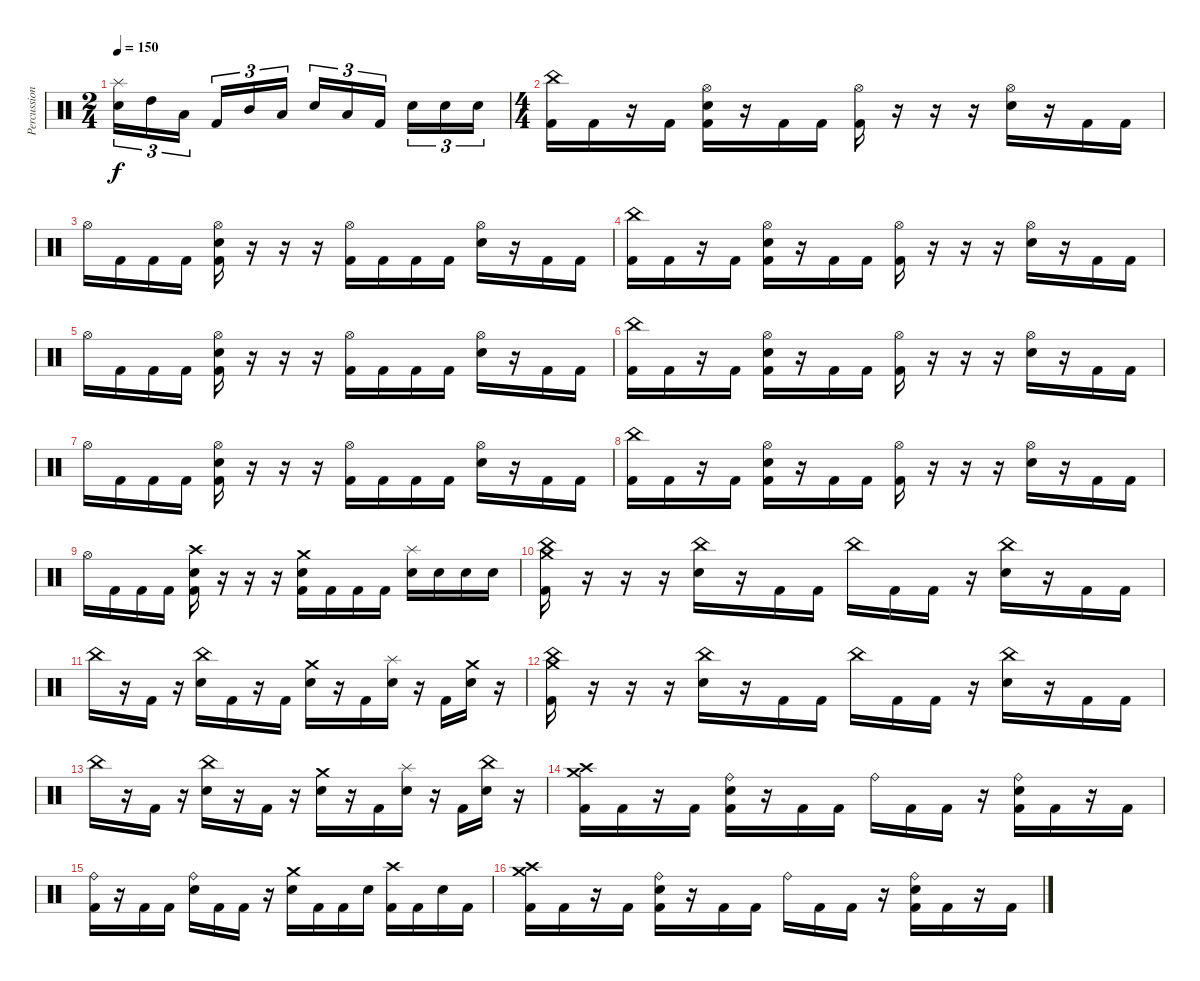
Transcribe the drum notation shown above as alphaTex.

\track ("Percussion" "Percussion") {instrument percussion}
\staff {score}
\articulation defaults
\ts (2 4)
\tempo 150
\clef neutral
\ks c
("Splash (hit)" "Electric Snare (hit)").16{tu (3 2) dy f} "High Tom (hit)".16{tu (3 2)} "Low Floor Tom (hit)".16{tu (3 2)} "Kick (hit) 2".16{tu (3 2)} "Mid Tom (hit)".16{tu (3 2)} "Low Tom (hit)".16{tu (3 2)} "Electric Snare (hit)".16{tu (3 2)} "Low Tom (hit)".16{tu (3 2)} "Kick (hit) 2".16{tu (3 2)} "Electric Snare (hit)".16{tu (3 2)} "Electric Snare (hit)".16{tu (3 2)} "Electric Snare (hit)".16{tu (3 2)} |
\ts (4 4)
("China (hit)" "Kick (hit) 2").16 "Kick (hit) 2".16 r.16 "Kick (hit) 2".16 ("Hi-Hat (open)" "Electric Snare (hit)" "Kick (hit) 2").16 r.16 "Kick (hit) 2".16 "Kick (hit) 2".16 ("Hi-Hat (open)" "Kick (hit) 2").16 r.16 r.16 r.16 ("Hi-Hat (open)" "Electric Snare (hit)").16 r.16 "Kick (hit) 2".16 "Kick (hit) 2".16 |
"Hi-Hat (open)".16 "Kick (hit) 2".16 "Kick (hit) 2".16 "Kick (hit) 2".16 ("Hi-Hat (open)" "Electric Snare (hit)" "Kick (hit) 2").16 r.16 r.16 r.16 ("Hi-Hat (open)" "Kick (hit) 2").16 "Kick (hit) 2".16 "Kick (hit) 2".16 "Kick (hit) 2".16 ("Hi-Hat (open)" "Electric Snare (hit)").16 r.16 "Kick (hit) 2".16 "Kick (hit) 2".16 |
("China (hit)" "Kick (hit) 2").16 "Kick (hit) 2".16 r.16 "Kick (hit) 2".16 ("Hi-Hat (open)" "Electric Snare (hit)" "Kick (hit) 2").16 r.16 "Kick (hit) 2".16 "Kick (hit) 2".16 ("Hi-Hat (open)" "Kick (hit) 2").16 r.16 r.16 r.16 ("Hi-Hat (open)" "Electric Snare (hit)").16 r.16 "Kick (hit) 2".16 "Kick (hit) 2".16 |
"Hi-Hat (open)".16 "Kick (hit) 2".16 "Kick (hit) 2".16 "Kick (hit) 2".16 ("Hi-Hat (open)" "Electric Snare (hit)" "Kick (hit) 2").16 r.16 r.16 r.16 ("Hi-Hat (open)" "Kick (hit) 2").16 "Kick (hit) 2".16 "Kick (hit) 2".16 "Kick (hit) 2".16 ("Hi-Hat (open)" "Electric Snare (hit)").16 r.16 "Kick (hit) 2".16 "Kick (hit) 2".16 |
("China (hit)" "Kick (hit) 2").16 "Kick (hit) 2".16 r.16 "Kick (hit) 2".16 ("Hi-Hat (open)" "Electric Snare (hit)" "Kick (hit) 2").16 r.16 "Kick (hit) 2".16 "Kick (hit) 2".16 ("Hi-Hat (open)" "Kick (hit) 2").16 r.16 r.16 r.16 ("Hi-Hat (open)" "Electric Snare (hit)").16 r.16 "Kick (hit) 2".16 "Kick (hit) 2".16 |
"Hi-Hat (open)".16 "Kick (hit) 2".16 "Kick (hit) 2".16 "Kick (hit) 2".16 ("Hi-Hat (open)" "Electric Snare (hit)" "Kick (hit) 2").16 r.16 r.16 r.16 ("Hi-Hat (open)" "Kick (hit) 2").16 "Kick (hit) 2".16 "Kick (hit) 2".16 "Kick (hit) 2".16 ("Hi-Hat (open)" "Electric Snare (hit)").16 r.16 "Kick (hit) 2".16 "Kick (hit) 2".16 |
("China (hit)" "Kick (hit) 2").16 "Kick (hit) 2".16 r.16 "Kick (hit) 2".16 ("Hi-Hat (open)" "Electric Snare (hit)" "Kick (hit) 2").16 r.16 "Kick (hit) 2".16 "Kick (hit) 2".16 ("Hi-Hat (open)" "Kick (hit) 2").16 r.16 r.16 r.16 ("Hi-Hat (open)" "Electric Snare (hit)").16 r.16 "Kick (hit) 2".16 "Kick (hit) 2".16 |
"Hi-Hat (open)".16 "Kick (hit) 2".16 "Kick (hit) 2".16 "Kick (hit) 2".16 ("Crash high (hit)" "Electric Snare (hit)" "Kick (hit) 2").16 r.16 r.16 r.16 ("Crash medium (hit)" "Electric Snare (hit)" "Kick (hit) 2").16 "Kick (hit) 2".16 "Kick (hit) 2".16 "Kick (hit) 2".16 ("Splash (hit)" "Electric Snare (hit)").16 "Electric Snare (hit)".16 "Electric Snare (hit)".16 "Electric Snare (hit)".16 |
("China (hit)" "Crash medium (hit)" "Kick (hit) 2").16 r.16 r.16 r.16 ("China (hit)" "Electric Snare (hit)").16 r.16 "Kick (hit) 2".16 "Kick (hit) 2".16 "China (hit)".16 "Kick (hit) 2".16 "Kick (hit) 2".16 r.16 ("China (hit)" "Electric Snare (hit)").16 r.16 "Kick (hit) 2".16 "Kick (hit) 2".16 |
"China (hit)".16 r.16 "Kick (hit) 2".16 r.16 ("China (hit)" "Electric Snare (hit)").16 "Kick (hit) 2".16 r.16 "Kick (hit) 2".16 ("Crash medium (hit)" "Electric Snare (hit)").16 r.16 "Kick (hit) 2".16 ("Splash (hit)" "Electric Snare (hit)").16 r.16 "Kick (hit) 2".16 ("Crash medium (hit)" "Electric Snare (hit)").16 r.16 |
("China (hit)" "Crash medium (hit)" "Kick (hit) 2").16 r.16 r.16 r.16 ("China (hit)" "Electric Snare (hit)").16 r.16 "Kick (hit) 2".16 "Kick (hit) 2".16 "China (hit)".16 "Kick (hit) 2".16 "Kick (hit) 2".16 r.16 ("China (hit)" "Electric Snare (hit)").16 r.16 "Kick (hit) 2".16 "Kick (hit) 2".16 |
"China (hit)".16 r.16 "Kick (hit) 2".16 r.16 ("China (hit)" "Electric Snare (hit)").16 r.16 "Kick (hit) 2".16 r.16 ("Crash medium (hit)" "Electric Snare (hit)").16 r.16 "Kick (hit) 2".16 ("Splash (hit)" "Electric Snare (hit)").16 r.16 "Kick (hit) 2".16 ("China (hit)" "Electric Snare (hit)").16 r.16 |
("Crash medium (hit)" "Crash high (hit)" "Kick (hit) 2").16 "Kick (hit) 2".16 r.16 "Kick (hit) 2".16 ("Ride (bell)" "Electric Snare (hit)" "Kick (hit) 2").16 r.16 "Kick (hit) 2".16 "Kick (hit) 2".16 "Ride (bell)".16 "Kick (hit) 2".16 "Kick (hit) 2".16 r.16 ("Ride (bell)" "Electric Snare (hit)" "Kick (hit) 2").16 "Kick (hit) 2".16 r.16 "Kick (hit) 2".16 |
("Ride (bell)" "Kick (hit) 2").16 r.16 "Kick (hit) 2".16 "Kick (hit) 2".16 ("Ride (bell)" "Electric Snare (hit)").16 "Kick (hit) 2".16 "Kick (hit) 2".16 r.16 ("Crash medium (hit)" "Electric Snare (hit)").16 "Kick (hit) 2".16 "Kick (hit) 2".16 "Electric Snare (hit)".16 ("Crash high (hit)" "Kick (hit) 2").16 "Kick (hit) 2".16 "Electric Snare (hit)".16 "Kick (hit) 2".16 |
("Crash medium (hit)" "Crash high (hit)" "Kick (hit) 2").16 "Kick (hit) 2".16 r.16 "Kick (hit) 2".16 ("Ride (bell)" "Electric Snare (hit)" "Kick (hit) 2").16 r.16 "Kick (hit) 2".16 "Kick (hit) 2".16 "Ride (bell)".16 "Kick (hit) 2".16 "Kick (hit) 2".16 r.16 ("Ride (bell)" "Electric Snare (hit)" "Kick (hit) 2").16 "Kick (hit) 2".16 r.16 "Kick (hit) 2".16
